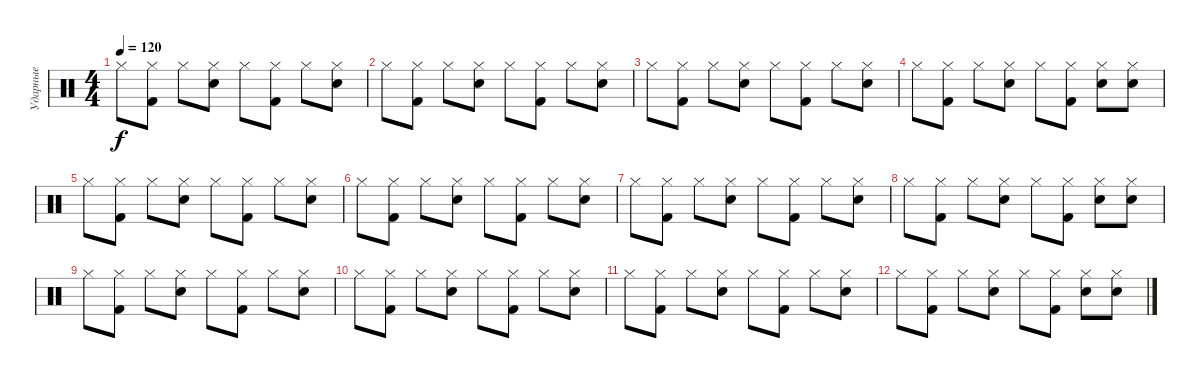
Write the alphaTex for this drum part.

\track ("Ударные" "Ударные") {instrument percussion}
\staff {score}
\articulation defaults
\ts (4 4)
\tempo 120
\clef neutral
\ks c "Hi-Hat (closed)".8{dy f}
("Kick (hit) 2" "Hi-Hat (closed)").8 "Hi-Hat (closed)".8 ("Electric Snare (hit)" "Hi-Hat (closed)").8 "Hi-Hat (closed)".8 ("Kick (hit) 2" "Hi-Hat (closed)").8 "Hi-Hat (closed)".8 ("Electric Snare (hit)" "Hi-Hat (closed)").8 |
"Hi-Hat (closed)".8 ("Kick (hit) 2" "Hi-Hat (closed)").8 "Hi-Hat (closed)".8 ("Electric Snare (hit)" "Hi-Hat (closed)").8 "Hi-Hat (closed)".8 ("Kick (hit) 2" "Hi-Hat (closed)").8 "Hi-Hat (closed)".8 ("Electric Snare (hit)" "Hi-Hat (closed)").8 |
"Hi-Hat (closed)".8 ("Kick (hit) 2" "Hi-Hat (closed)").8 "Hi-Hat (closed)".8 ("Electric Snare (hit)" "Hi-Hat (closed)").8 "Hi-Hat (closed)".8 ("Kick (hit) 2" "Hi-Hat (closed)").8 "Hi-Hat (closed)".8 ("Electric Snare (hit)" "Hi-Hat (closed)").8 |
"Hi-Hat (closed)".8 ("Kick (hit) 2" "Hi-Hat (closed)").8 "Hi-Hat (closed)".8 ("Electric Snare (hit)" "Hi-Hat (closed)").8 "Hi-Hat (closed)".8 ("Kick (hit) 2" "Hi-Hat (closed)").8 ("Electric Snare (hit)" "Hi-Hat (closed)").8 ("Electric Snare (hit)" "Hi-Hat (closed)").8 |
"Hi-Hat (closed)".8 ("Kick (hit) 2" "Hi-Hat (closed)").8 "Hi-Hat (closed)".8 ("Electric Snare (hit)" "Hi-Hat (closed)").8 "Hi-Hat (closed)".8 ("Kick (hit) 2" "Hi-Hat (closed)").8 "Hi-Hat (closed)".8 ("Electric Snare (hit)" "Hi-Hat (closed)").8 |
"Hi-Hat (closed)".8 ("Kick (hit) 2" "Hi-Hat (closed)").8 "Hi-Hat (closed)".8 ("Electric Snare (hit)" "Hi-Hat (closed)").8 "Hi-Hat (closed)".8 ("Kick (hit) 2" "Hi-Hat (closed)").8 "Hi-Hat (closed)".8 ("Electric Snare (hit)" "Hi-Hat (closed)").8 |
"Hi-Hat (closed)".8 ("Kick (hit) 2" "Hi-Hat (closed)").8 "Hi-Hat (closed)".8 ("Electric Snare (hit)" "Hi-Hat (closed)").8 "Hi-Hat (closed)".8 ("Kick (hit) 2" "Hi-Hat (closed)").8 "Hi-Hat (closed)".8 ("Electric Snare (hit)" "Hi-Hat (closed)").8 |
"Hi-Hat (closed)".8 ("Kick (hit) 2" "Hi-Hat (closed)").8 "Hi-Hat (closed)".8 ("Electric Snare (hit)" "Hi-Hat (closed)").8 "Hi-Hat (closed)".8 ("Kick (hit) 2" "Hi-Hat (closed)").8 ("Electric Snare (hit)" "Hi-Hat (closed)").8 ("Electric Snare (hit)" "Hi-Hat (closed)").8 |
"Hi-Hat (closed)".8 ("Kick (hit) 2" "Hi-Hat (closed)").8 "Hi-Hat (closed)".8 ("Electric Snare (hit)" "Hi-Hat (closed)").8 "Hi-Hat (closed)".8 ("Kick (hit) 2" "Hi-Hat (closed)").8 "Hi-Hat (closed)".8 ("Electric Snare (hit)" "Hi-Hat (closed)").8 |
"Hi-Hat (closed)".8 ("Kick (hit) 2" "Hi-Hat (closed)").8 "Hi-Hat (closed)".8 ("Electric Snare (hit)" "Hi-Hat (closed)").8 "Hi-Hat (closed)".8 ("Kick (hit) 2" "Hi-Hat (closed)").8 "Hi-Hat (closed)".8 ("Electric Snare (hit)" "Hi-Hat (closed)").8 |
"Hi-Hat (closed)".8 ("Kick (hit) 2" "Hi-Hat (closed)").8 "Hi-Hat (closed)".8 ("Electric Snare (hit)" "Hi-Hat (closed)").8 "Hi-Hat (closed)".8 ("Kick (hit) 2" "Hi-Hat (closed)").8 "Hi-Hat (closed)".8 ("Electric Snare (hit)" "Hi-Hat (closed)").8 |
"Hi-Hat (closed)".8 ("Kick (hit) 2" "Hi-Hat (closed)").8 "Hi-Hat (closed)".8 ("Electric Snare (hit)" "Hi-Hat (closed)").8 "Hi-Hat (closed)".8 ("Kick (hit) 2" "Hi-Hat (closed)").8 ("Electric Snare (hit)" "Hi-Hat (closed)").8 ("Electric Snare (hit)" "Hi-Hat (closed)").8
